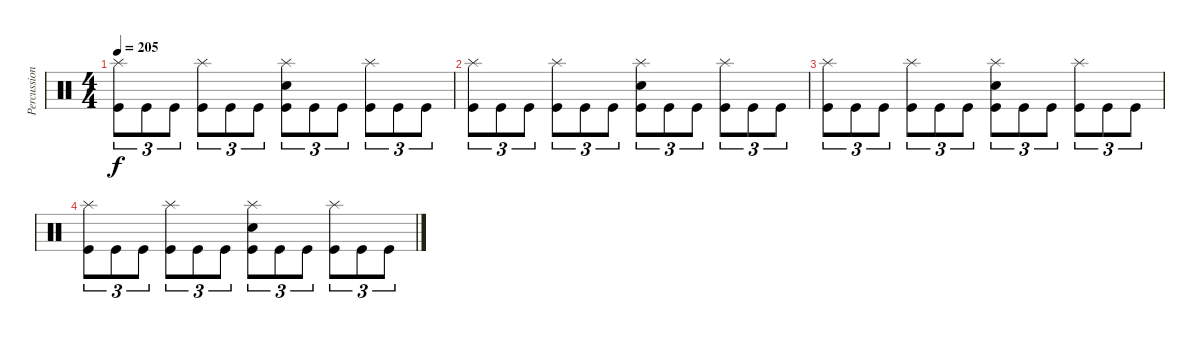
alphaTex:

\track ("Percussion" "Percussion") {instrument percussion}
\staff {score}
\articulation defaults
\ts (4 4)
\tempo 205
\clef neutral
\ks c
("Splash (hit)" "Kick (hit)").8{tu (3 2) dy f} "Kick (hit)".8{tu (3 2)} "Kick (hit)".8{tu (3 2)} ("Splash (hit)" "Kick (hit)").8{tu (3 2)} "Kick (hit)".8{tu (3 2)} "Kick (hit)".8{tu (3 2)} ("Splash (hit)" "Snare (hit) 2" "Kick (hit)").8{tu (3 2)} "Kick (hit)".8{tu (3 2)} "Kick (hit)".8{tu (3 2)} ("Splash (hit)" "Kick (hit)").8{tu (3 2)} "Kick (hit)".8{tu (3 2)} "Kick (hit)".8{tu (3 2)} |
("Splash (hit)" "Kick (hit)").8{tu (3 2)} "Kick (hit)".8{tu (3 2)} "Kick (hit)".8{tu (3 2)} ("Splash (hit)" "Kick (hit)").8{tu (3 2)} "Kick (hit)".8{tu (3 2)} "Kick (hit)".8{tu (3 2)} ("Splash (hit)" "Snare (hit) 2" "Kick (hit)").8{tu (3 2)} "Kick (hit)".8{tu (3 2)} "Kick (hit)".8{tu (3 2)} ("Splash (hit)" "Kick (hit)").8{tu (3 2)} "Kick (hit)".8{tu (3 2)} "Kick (hit)".8{tu (3 2)} |
("Splash (hit)" "Kick (hit)").8{tu (3 2)} "Kick (hit)".8{tu (3 2)} "Kick (hit)".8{tu (3 2)} ("Splash (hit)" "Kick (hit)").8{tu (3 2)} "Kick (hit)".8{tu (3 2)} "Kick (hit)".8{tu (3 2)} ("Splash (hit)" "Snare (hit) 2" "Kick (hit)").8{tu (3 2)} "Kick (hit)".8{tu (3 2)} "Kick (hit)".8{tu (3 2)} ("Splash (hit)" "Kick (hit)").8{tu (3 2)} "Kick (hit)".8{tu (3 2)} "Kick (hit)".8{tu (3 2)} |
("Splash (hit)" "Kick (hit)").8{tu (3 2)} "Kick (hit)".8{tu (3 2)} "Kick (hit)".8{tu (3 2)} ("Splash (hit)" "Kick (hit)").8{tu (3 2)} "Kick (hit)".8{tu (3 2)} "Kick (hit)".8{tu (3 2)} ("Splash (hit)" "Snare (hit) 2" "Kick (hit)").8{tu (3 2)} "Kick (hit)".8{tu (3 2)} "Kick (hit)".8{tu (3 2)} ("Splash (hit)" "Kick (hit)").8{tu (3 2)} "Kick (hit)".8{tu (3 2)} "Kick (hit)".8{tu (3 2)}
